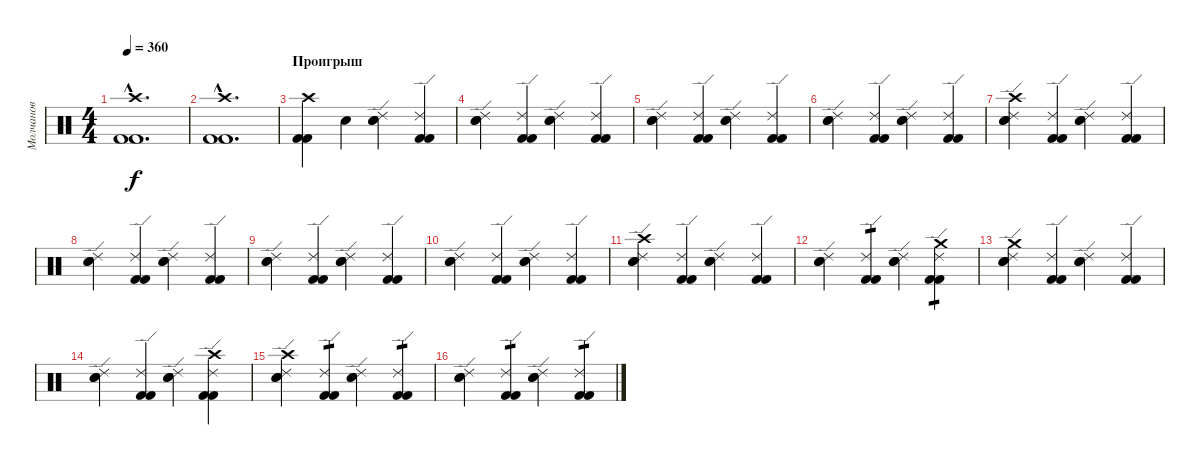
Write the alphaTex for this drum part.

\track ("Молчанов" "Молчанов") {instrument percussion}
\staff {score}
\articulation defaults
\ts (4 4)
\tempo 360
\clef neutral
\ks c
("Crash high (hit)"{hac} "Kick (hit) 2"{hac} "Kick (hit) 2"{hac}).1{d dy f} |
("Crash high (hit)"{hac} "Kick (hit) 2"{hac} "Kick (hit) 2"{hac}).1{d} |
\section ("" "Проигрыш")
("Kick (hit) 2" "Kick (hit) 2" "Crash high (hit)").4 "Snare (hit)"{x}.4 ("Ride (edge) 2" "Electric Snare (hit)" "Electric Snare (hit)").4 ("Ride (edge) 2" "Kick (hit) 2" "Kick (hit) 2").4 |
("Ride (edge) 2" "Electric Snare (hit)" "Electric Snare (hit)").4 ("Ride (edge) 2" "Kick (hit) 2" "Kick (hit) 2").4 ("Ride (edge) 2" "Electric Snare (hit)" "Electric Snare (hit)").4 ("Ride (edge) 2" "Kick (hit) 2" "Kick (hit) 2").4 |
("Ride (edge) 2" "Electric Snare (hit)" "Electric Snare (hit)").4 ("Ride (edge) 2" "Kick (hit) 2" "Kick (hit) 2").4 ("Ride (edge) 2" "Electric Snare (hit)" "Electric Snare (hit)").4 ("Ride (edge) 2" "Kick (hit) 2" "Kick (hit) 2").4 |
("Ride (edge) 2" "Electric Snare (hit)" "Electric Snare (hit)").4 ("Ride (edge) 2" "Kick (hit) 2" "Kick (hit) 2").4 ("Ride (edge) 2" "Electric Snare (hit)" "Electric Snare (hit)").4 ("Ride (edge) 2" "Kick (hit) 2" "Kick (hit) 2").4 |
("Ride (edge) 2" "Electric Snare (hit)" "Electric Snare (hit)" "Crash high (hit)").4 ("Ride (edge) 2" "Kick (hit) 2" "Kick (hit) 2").4 ("Ride (edge) 2" "Electric Snare (hit)" "Electric Snare (hit)").4 ("Ride (edge) 2" "Kick (hit) 2" "Kick (hit) 2").4 |
("Ride (edge) 2" "Electric Snare (hit)" "Electric Snare (hit)").4 ("Ride (edge) 2" "Kick (hit) 2" "Kick (hit) 2").4 ("Ride (edge) 2" "Electric Snare (hit)" "Electric Snare (hit)").4 ("Ride (edge) 2" "Kick (hit) 2" "Kick (hit) 2").4 |
("Ride (edge) 2" "Electric Snare (hit)" "Electric Snare (hit)").4 ("Ride (edge) 2" "Kick (hit) 2" "Kick (hit) 2").4 ("Ride (edge) 2" "Electric Snare (hit)" "Electric Snare (hit)").4 ("Ride (edge) 2" "Kick (hit) 2" "Kick (hit) 2").4 |
("Ride (edge) 2" "Electric Snare (hit)" "Electric Snare (hit)").4 ("Ride (edge) 2" "Kick (hit) 2" "Kick (hit) 2").4 ("Ride (edge) 2" "Electric Snare (hit)" "Electric Snare (hit)").4 ("Ride (edge) 2" "Kick (hit) 2" "Kick (hit) 2").4 |
("Ride (edge) 2" "Electric Snare (hit)" "Electric Snare (hit)" "Crash high (hit)").4 ("Ride (edge) 2" "Kick (hit) 2" "Kick (hit) 2").4 ("Ride (edge) 2" "Electric Snare (hit)" "Electric Snare (hit)").4 ("Ride (edge) 2" "Kick (hit) 2" "Kick (hit) 2").4 |
("Ride (edge) 2" "Electric Snare (hit)" "Electric Snare (hit)").4 ("Ride (edge) 2" "Kick (hit) 2" "Kick (hit) 2").4{tp 1} ("Ride (edge) 2" "Electric Snare (hit)" "Electric Snare (hit)").4 ("Ride (edge) 2" "Kick (hit) 2" "Kick (hit) 2" "Crash medium (hit)").4{tp 1} |
("Ride (edge) 2" "Electric Snare (hit)" "Electric Snare (hit)" "Crash medium (hit)").4 ("Ride (edge) 2" "Kick (hit) 2" "Kick (hit) 2").4 ("Ride (edge) 2" "Electric Snare (hit)" "Electric Snare (hit)").4 ("Ride (edge) 2" "Kick (hit) 2" "Kick (hit) 2").4 |
("Ride (edge) 2" "Electric Snare (hit)" "Electric Snare (hit)").4 ("Ride (edge) 2" "Kick (hit) 2" "Kick (hit) 2").4 ("Ride (edge) 2" "Electric Snare (hit)" "Electric Snare (hit)").4 ("Ride (edge) 2" "Kick (hit) 2" "Kick (hit) 2" "Crash high (hit)").4 |
("Ride (edge) 2" "Electric Snare (hit)" "Electric Snare (hit)" "Crash high (hit)").4 ("Ride (edge) 2" "Kick (hit) 2" "Kick (hit) 2").4{tp 1} ("Ride (edge) 2" "Electric Snare (hit)" "Electric Snare (hit)").4 ("Ride (edge) 2" "Kick (hit) 2" "Kick (hit) 2").4{tp 1} |
("Ride (edge) 2" "Electric Snare (hit)" "Electric Snare (hit)").4 ("Ride (edge) 2" "Kick (hit) 2" "Kick (hit) 2").4{tp 1} ("Ride (edge) 2" "Electric Snare (hit)" "Electric Snare (hit)").4 ("Ride (edge) 2" "Kick (hit) 2" "Kick (hit) 2").4{tp 1}
